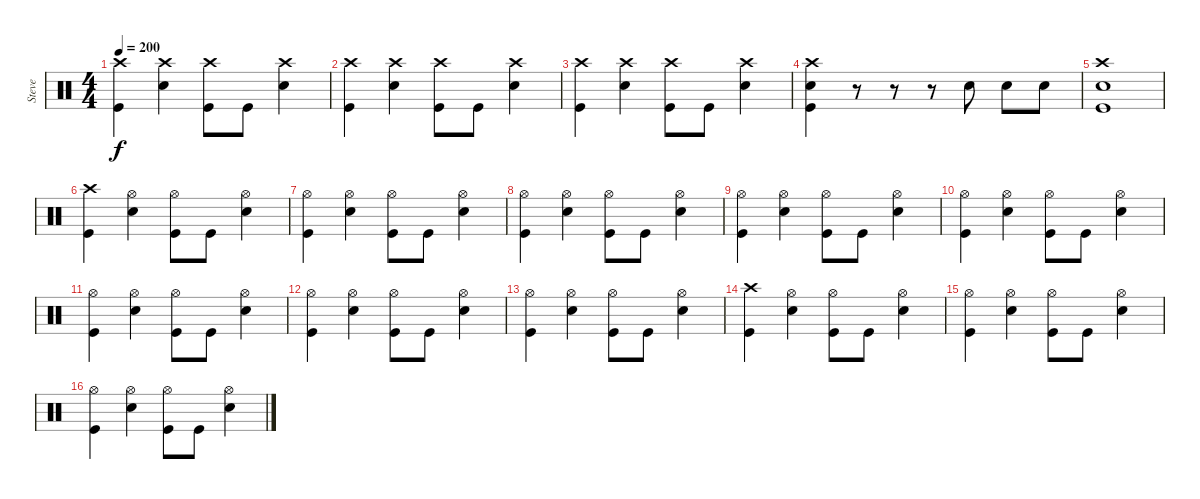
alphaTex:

\track ("Steve" "Steve") {instrument percussion}
\staff {score}
\articulation defaults
\ts (4 4)
\tempo 200
\clef neutral
\ks c
("Crash high (hit)" "Kick (hit)").4{dy f} ("Crash high (hit)" "Snare (hit) 2").4 ("Crash high (hit)" "Kick (hit)").8 "Kick (hit)".8 ("Crash high (hit)" "Snare (hit) 2").4 |
("Crash high (hit)" "Kick (hit)").4 ("Crash high (hit)" "Snare (hit) 2").4 ("Crash high (hit)" "Kick (hit)").8 "Kick (hit)".8 ("Crash high (hit)" "Snare (hit) 2").4 |
("Crash high (hit)" "Kick (hit)").4 ("Crash high (hit)" "Snare (hit) 2").4 ("Crash high (hit)" "Kick (hit)").8 "Kick (hit)".8 ("Crash high (hit)" "Snare (hit) 2").4 |
("Crash high (hit)" "Snare (hit) 2" "Kick (hit)").4 r.8 r.8 r.8 "Snare (hit) 2".8 "Snare (hit) 2".8 "Snare (hit) 2".8 |
("Crash high (hit)" "Snare (hit) 2" "Kick (hit)").1 |
("Crash high (hit)" "Kick (hit)").4{volume 13} ("Hi-Hat (open)" "Snare (hit) 2").4 ("Hi-Hat (open)" "Kick (hit)").8 "Kick (hit)".8 ("Hi-Hat (open)" "Snare (hit) 2").4 |
("Hi-Hat (open)" "Kick (hit)").4 ("Hi-Hat (open)" "Snare (hit) 2").4 ("Hi-Hat (open)" "Kick (hit)").8 "Kick (hit)".8 ("Hi-Hat (open)" "Snare (hit) 2").4 |
("Hi-Hat (open)" "Kick (hit)").4 ("Hi-Hat (open)" "Snare (hit) 2").4 ("Hi-Hat (open)" "Kick (hit)").8 "Kick (hit)".8 ("Hi-Hat (open)" "Snare (hit) 2").4 |
("Hi-Hat (open)" "Kick (hit)").4 ("Hi-Hat (open)" "Snare (hit) 2").4 ("Hi-Hat (open)" "Kick (hit)").8 "Kick (hit)".8 ("Hi-Hat (open)" "Snare (hit) 2").4 |
("Hi-Hat (open)" "Kick (hit)").4 ("Hi-Hat (open)" "Snare (hit) 2").4 ("Hi-Hat (open)" "Kick (hit)").8 "Kick (hit)".8 ("Hi-Hat (open)" "Snare (hit) 2").4 |
("Hi-Hat (open)" "Kick (hit)").4 ("Hi-Hat (open)" "Snare (hit) 2").4 ("Hi-Hat (open)" "Kick (hit)").8 "Kick (hit)".8 ("Hi-Hat (open)" "Snare (hit) 2").4 |
("Hi-Hat (open)" "Kick (hit)").4 ("Hi-Hat (open)" "Snare (hit) 2").4 ("Hi-Hat (open)" "Kick (hit)").8 "Kick (hit)".8 ("Hi-Hat (open)" "Snare (hit) 2").4 |
("Hi-Hat (open)" "Kick (hit)").4 ("Hi-Hat (open)" "Snare (hit) 2").4 ("Hi-Hat (open)" "Kick (hit)").8 "Kick (hit)".8 ("Hi-Hat (open)" "Snare (hit) 2").4 |
("Crash high (hit)" "Kick (hit)").4 ("Hi-Hat (open)" "Snare (hit) 2").4 ("Hi-Hat (open)" "Kick (hit)").8 "Kick (hit)".8 ("Hi-Hat (open)" "Snare (hit) 2").4 |
("Hi-Hat (open)" "Kick (hit)").4 ("Hi-Hat (open)" "Snare (hit) 2").4 ("Hi-Hat (open)" "Kick (hit)").8 "Kick (hit)".8 ("Hi-Hat (open)" "Snare (hit) 2").4 |
("Hi-Hat (open)" "Kick (hit)").4 ("Hi-Hat (open)" "Snare (hit) 2").4 ("Hi-Hat (open)" "Kick (hit)").8 "Kick (hit)".8 ("Hi-Hat (open)" "Snare (hit) 2").4
